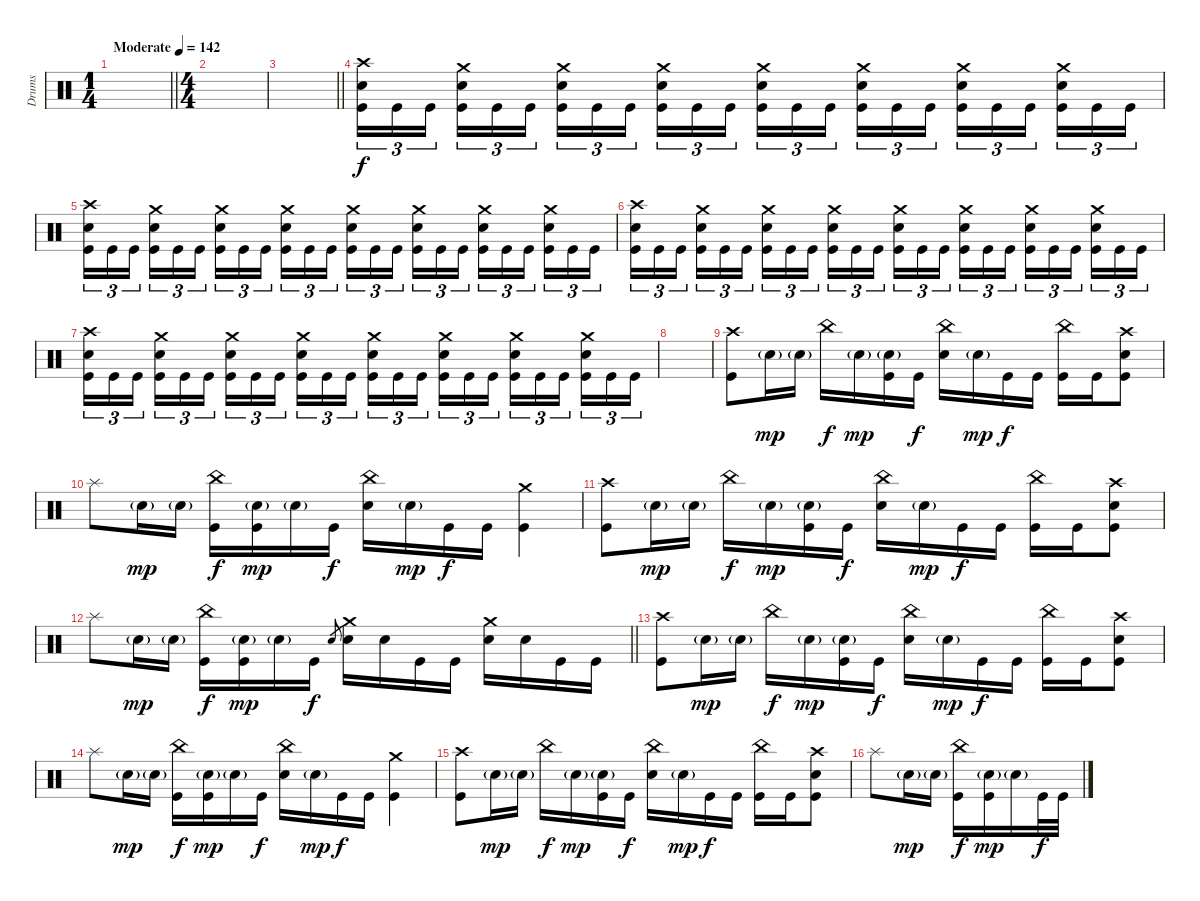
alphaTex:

\track ("Drums" "Drums") {instrument percussion}
\staff
\articulation defaults
\ts (1 4)
\tempo (142 "Moderate")
\clef neutral
\barLineRight lightlight
\ks c
|
\ts (4 4)
|
\barLineRight lightlight
|
("Crash high (hit)" "Electric Snare (hit)" "Kick (hit)").16{tu (3 2)} "Kick (hit)".16{tu (3 2)} "Kick (hit)".16{tu (3 2) beam splitsecondary} ("Crash medium (hit)" "Electric Snare (hit)" "Kick (hit)").16{tu (3 2)} "Kick (hit)".16{tu (3 2)} "Kick (hit)".16{tu (3 2)} ("Crash medium (hit)" "Electric Snare (hit)" "Kick (hit)").16{tu (3 2)} "Kick (hit)".16{tu (3 2)} "Kick (hit)".16{tu (3 2) beam splitsecondary} ("Crash medium (hit)" "Electric Snare (hit)" "Kick (hit)").16{tu (3 2)} "Kick (hit)".16{tu (3 2)} "Kick (hit)".16{tu (3 2)} ("Crash medium (hit)" "Electric Snare (hit)" "Kick (hit)").16{tu (3 2)} "Kick (hit)".16{tu (3 2)} "Kick (hit)".16{tu (3 2) beam splitsecondary} ("Crash medium (hit)" "Electric Snare (hit)" "Kick (hit)").16{tu (3 2)} "Kick (hit)".16{tu (3 2)} "Kick (hit)".16{tu (3 2)} ("Crash medium (hit)" "Electric Snare (hit)" "Kick (hit)").16{tu (3 2)} "Kick (hit)".16{tu (3 2)} "Kick (hit)".16{tu (3 2) beam splitsecondary} ("Crash medium (hit)" "Electric Snare (hit)" "Kick (hit)").16{tu (3 2)} "Kick (hit)".16{tu (3 2)} "Kick (hit)".16{tu (3 2)} |
("Crash high (hit)" "Electric Snare (hit)" "Kick (hit)").16{tu (3 2)} "Kick (hit)".16{tu (3 2)} "Kick (hit)".16{tu (3 2) beam splitsecondary} ("Crash medium (hit)" "Electric Snare (hit)" "Kick (hit)").16{tu (3 2)} "Kick (hit)".16{tu (3 2)} "Kick (hit)".16{tu (3 2)} ("Crash medium (hit)" "Electric Snare (hit)" "Kick (hit)").16{tu (3 2)} "Kick (hit)".16{tu (3 2)} "Kick (hit)".16{tu (3 2) beam splitsecondary} ("Crash medium (hit)" "Electric Snare (hit)" "Kick (hit)").16{tu (3 2)} "Kick (hit)".16{tu (3 2)} "Kick (hit)".16{tu (3 2)} ("Crash medium (hit)" "Electric Snare (hit)" "Kick (hit)").16{tu (3 2)} "Kick (hit)".16{tu (3 2)} "Kick (hit)".16{tu (3 2) beam splitsecondary} ("Crash medium (hit)" "Electric Snare (hit)" "Kick (hit)").16{tu (3 2)} "Kick (hit)".16{tu (3 2)} "Kick (hit)".16{tu (3 2)} ("Crash medium (hit)" "Electric Snare (hit)" "Kick (hit)").16{tu (3 2)} "Kick (hit)".16{tu (3 2)} "Kick (hit)".16{tu (3 2) beam splitsecondary} ("Crash medium (hit)" "Electric Snare (hit)" "Kick (hit)").16{tu (3 2)} "Kick (hit)".16{tu (3 2)} "Kick (hit)".16{tu (3 2)} |
("Crash high (hit)" "Electric Snare (hit)" "Kick (hit)").16{tu (3 2)} "Kick (hit)".16{tu (3 2)} "Kick (hit)".16{tu (3 2) beam splitsecondary} ("Crash medium (hit)" "Electric Snare (hit)" "Kick (hit)").16{tu (3 2)} "Kick (hit)".16{tu (3 2)} "Kick (hit)".16{tu (3 2)} ("Crash medium (hit)" "Electric Snare (hit)" "Kick (hit)").16{tu (3 2)} "Kick (hit)".16{tu (3 2)} "Kick (hit)".16{tu (3 2) beam splitsecondary} ("Crash medium (hit)" "Electric Snare (hit)" "Kick (hit)").16{tu (3 2)} "Kick (hit)".16{tu (3 2)} "Kick (hit)".16{tu (3 2)} ("Crash medium (hit)" "Electric Snare (hit)" "Kick (hit)").16{tu (3 2)} "Kick (hit)".16{tu (3 2)} "Kick (hit)".16{tu (3 2) beam splitsecondary} ("Crash medium (hit)" "Electric Snare (hit)" "Kick (hit)").16{tu (3 2)} "Kick (hit)".16{tu (3 2)} "Kick (hit)".16{tu (3 2)} ("Crash medium (hit)" "Electric Snare (hit)" "Kick (hit)").16{tu (3 2)} "Kick (hit)".16{tu (3 2)} "Kick (hit)".16{tu (3 2) beam splitsecondary} ("Crash medium (hit)" "Electric Snare (hit)" "Kick (hit)").16{tu (3 2)} "Kick (hit)".16{tu (3 2)} "Kick (hit)".16{tu (3 2)} |
("Crash high (hit)" "Electric Snare (hit)" "Kick (hit)").16{tu (3 2)} "Kick (hit)".16{tu (3 2)} "Kick (hit)".16{tu (3 2) beam splitsecondary} ("Crash medium (hit)" "Electric Snare (hit)" "Kick (hit)").16{tu (3 2)} "Kick (hit)".16{tu (3 2)} "Kick (hit)".16{tu (3 2)} ("Crash medium (hit)" "Electric Snare (hit)" "Kick (hit)").16{tu (3 2)} "Kick (hit)".16{tu (3 2)} "Kick (hit)".16{tu (3 2) beam splitsecondary} ("Crash medium (hit)" "Electric Snare (hit)" "Kick (hit)").16{tu (3 2)} "Kick (hit)".16{tu (3 2)} "Kick (hit)".16{tu (3 2)} ("Crash medium (hit)" "Electric Snare (hit)" "Kick (hit)").16{tu (3 2)} "Kick (hit)".16{tu (3 2)} "Kick (hit)".16{tu (3 2) beam splitsecondary} ("Crash medium (hit)" "Electric Snare (hit)" "Kick (hit)").16{tu (3 2)} "Kick (hit)".16{tu (3 2)} "Kick (hit)".16{tu (3 2)} ("Crash medium (hit)" "Electric Snare (hit)" "Kick (hit)").16{tu (3 2)} "Kick (hit)".16{tu (3 2)} "Kick (hit)".16{tu (3 2) beam splitsecondary} ("Crash medium (hit)" "Electric Snare (hit)" "Kick (hit)").16{tu (3 2)} "Kick (hit)".16{tu (3 2)} "Kick (hit)".16{tu (3 2)} |
|
("Crash high (hit)" "Kick (hit)").8 "Electric Snare (hit)"{g}.16{dy mp} "Electric Snare (hit)"{g}.16 "China (hit)".16{dy f} "Electric Snare (hit)"{g}.16{dy mp} ("Electric Snare (hit)"{g} "Kick (hit)").16 "Kick (hit)".16{dy f} ("China (hit)" "Electric Snare (hit)").16 "Electric Snare (hit)"{g}.16{dy mp} "Kick (hit)".16{dy f} "Kick (hit)".16 ("China (hit)" "Kick (hit)").16 "Kick (hit)".16 ("Crash high (hit)" "Electric Snare (hit)" "Kick (hit)").8 |
"Splash (hit)".8 "Electric Snare (hit)"{g}.16{dy mp} "Electric Snare (hit)"{g}.16 ("China (hit)" "Kick (hit)").16{dy f} ("Electric Snare (hit)"{g} "Kick (hit)").16{dy mp} "Electric Snare (hit)"{g}.16 "Kick (hit)".16{dy f} ("China (hit)" "Electric Snare (hit)").16 "Electric Snare (hit)"{g}.16{dy mp} "Kick (hit)".16{dy f} "Kick (hit)".16 ("Crash medium (hit)" "Kick (hit)").4 |
("Crash high (hit)" "Kick (hit)").8 "Electric Snare (hit)"{g}.16{dy mp} "Electric Snare (hit)"{g}.16 "China (hit)".16{dy f} "Electric Snare (hit)"{g}.16{dy mp} ("Electric Snare (hit)"{g} "Kick (hit)").16 "Kick (hit)".16{dy f} ("China (hit)" "Electric Snare (hit)").16 "Electric Snare (hit)"{g}.16{dy mp} "Kick (hit)".16{dy f} "Kick (hit)".16 ("China (hit)" "Kick (hit)").16 "Kick (hit)".16 ("Crash high (hit)" "Electric Snare (hit)" "Kick (hit)").8 |
\barLineRight lightlight "Splash (hit)".8 "Electric Snare (hit)"{g}.16{dy mp} "Electric Snare (hit)"{g}.16
("China (hit)" "Kick (hit)").16{dy f} ("Electric Snare (hit)"{g} "Kick (hit)").16{dy mp} "Electric Snare (hit)"{g}.16 "Kick (hit)".16{dy f} "Electric Snare (hit)".8{gr} ("Crash medium (hit)" "Electric Snare (hit)").16 "Electric Snare (hit)".16 "Kick (hit)".16 "Kick (hit)".16 ("Crash medium (hit)" "Electric Snare (hit)").16 "Electric Snare (hit)".16 "Kick (hit)".16 "Kick (hit)".16 |
("Crash high (hit)" "Kick (hit)").8 "Electric Snare (hit)"{g}.16{dy mp} "Electric Snare (hit)"{g}.16 "China (hit)".16{dy f} "Electric Snare (hit)"{g}.16{dy mp} ("Electric Snare (hit)"{g} "Kick (hit)").16 "Kick (hit)".16{dy f} ("China (hit)" "Electric Snare (hit)").16 "Electric Snare (hit)"{g}.16{dy mp} "Kick (hit)".16{dy f} "Kick (hit)".16 ("China (hit)" "Kick (hit)").16 "Kick (hit)".16 ("Crash high (hit)" "Electric Snare (hit)" "Kick (hit)").8 |
"Splash (hit)".8 "Electric Snare (hit)"{g}.16{dy mp} "Electric Snare (hit)"{g}.16 ("China (hit)" "Kick (hit)").16{dy f} ("Electric Snare (hit)"{g} "Kick (hit)").16{dy mp} "Electric Snare (hit)"{g}.16 "Kick (hit)".16{dy f} ("China (hit)" "Electric Snare (hit)").16 "Electric Snare (hit)"{g}.16{dy mp} "Kick (hit)".16{dy f} "Kick (hit)".16 ("Crash medium (hit)" "Kick (hit)").4 |
("Crash high (hit)" "Kick (hit)").8 "Electric Snare (hit)"{g}.16{dy mp} "Electric Snare (hit)"{g}.16 "China (hit)".16{dy f} "Electric Snare (hit)"{g}.16{dy mp} ("Electric Snare (hit)"{g} "Kick (hit)").16 "Kick (hit)".16{dy f} ("China (hit)" "Electric Snare (hit)").16 "Electric Snare (hit)"{g}.16{dy mp} "Kick (hit)".16{dy f} "Kick (hit)".16 ("China (hit)" "Kick (hit)").16 "Kick (hit)".16 ("Crash high (hit)" "Electric Snare (hit)" "Kick (hit)").8 |
"Splash (hit)".8 "Electric Snare (hit)"{g}.16{dy mp} "Electric Snare (hit)"{g}.16 ("China (hit)" "Kick (hit)").16{dy f} ("Electric Snare (hit)"{g} "Kick (hit)").16{dy mp} "Electric Snare (hit)"{g}.16 "Kick (hit)".32{dy f} "Kick (hit)".32
